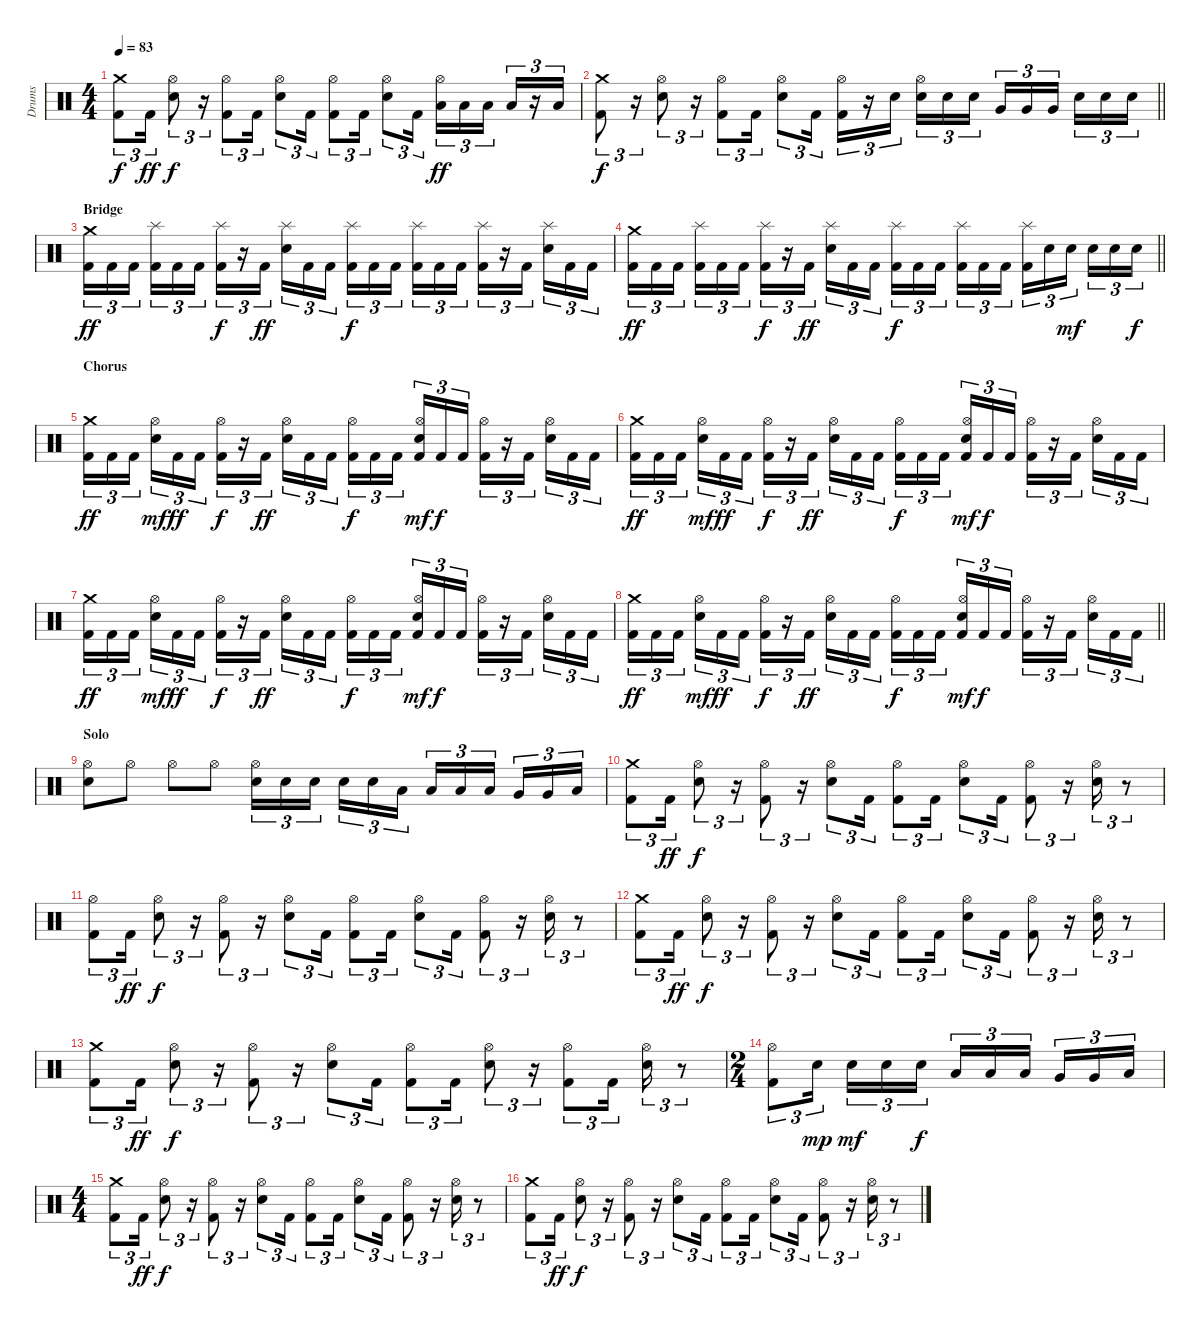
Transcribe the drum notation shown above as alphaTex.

\track ("Drums " "Drums ") {instrument percussion}
\staff {score}
\articulation defaults
\ts (4 4)
\tempo 83
\clef neutral
\ks c
("Crash medium (hit)" "Kick (hit) 2").8{tu (3 2) dy f} "Kick (hit) 2".16{tu (3 2) dy ff} ("Hi-Hat (open)" "Snare (hit) 2").8{tu (3 2) dy f} r.16{tu (3 2)} ("Hi-Hat (open)" "Kick (hit) 2").8{tu (3 2)} "Kick (hit) 2".16{tu (3 2)} ("Hi-Hat (open)" "Snare (hit) 2").8{tu (3 2)} "Kick (hit) 2".16{tu (3 2)} ("Hi-Hat (open)" "Kick (hit) 2").8{tu (3 2)} "Kick (hit) 2".16{tu (3 2)} ("Hi-Hat (open)" "Snare (hit) 2").8{tu (3 2)} "Kick (hit) 2".16{tu (3 2)} ("Hi-Hat (open)" "Low Tom (hit)").16{tu (3 2) dy ff} "Low Tom (hit)".16{tu (3 2)} "Low Tom (hit)".16{tu (3 2) beam splitsecondary} "Low Floor Tom (hit)".16{tu (3 2)} r.16{tu (3 2)} "Low Floor Tom (hit)".16{tu (3 2)} |
\barLineRight lightlight
("Crash medium (hit)" "Kick (hit) 2").8{tu (3 2) dy f} r.16{tu (3 2)} ("Hi-Hat (open)" "Snare (hit) 2").8{tu (3 2)} r.16{tu (3 2)} ("Hi-Hat (open)" "Kick (hit) 2").8{tu (3 2)} "Kick (hit) 2".16{tu (3 2)} ("Hi-Hat (open)" "Snare (hit) 2").8{tu (3 2)} "Kick (hit) 2".16{tu (3 2)} ("Hi-Hat (open)" "Kick (hit) 2").16{tu (3 2)} r.16{tu (3 2)} "Snare (hit) 2".16{tu (3 2) beam splitsecondary} ("Hi-Hat (open)" "Snare (hit) 2").16{tu (3 2)} "Snare (hit) 2".16{tu (3 2)} "Snare (hit) 2".16{tu (3 2)} "Very Low Tom (hit)".16{tu (3 2)} "Very Low Tom (hit)".16{tu (3 2)} "Very Low Tom (hit)".16{tu (3 2) beam splitsecondary} "Snare (hit) 2".16{tu (3 2)} "Snare (hit) 2".16{tu (3 2)} "Snare (hit) 2".16{tu (3 2)} |
\section ("" "Bridge")
("Crash medium (hit)" "Kick (hit) 2").16{tu (3 2) dy ff} "Kick (hit) 2".16{tu (3 2)} "Kick (hit) 2".16{tu (3 2) beam splitsecondary} ("Splash (hit)" "Kick (hit) 2").16{tu (3 2)} "Kick (hit) 2".16{tu (3 2)} "Kick (hit) 2".16{tu (3 2)} ("Splash (hit)" "Kick (hit) 2").16{tu (3 2) dy f} r.16{tu (3 2)} "Kick (hit) 2".16{tu (3 2) dy ff beam splitsecondary} ("Splash (hit)" "Snare (hit) 2").16{tu (3 2)} "Kick (hit) 2".16{tu (3 2)} "Kick (hit) 2".16{tu (3 2)} ("Splash (hit)" "Kick (hit) 2").16{tu (3 2) dy f} "Kick (hit) 2".16{tu (3 2)} "Kick (hit) 2".16{tu (3 2) beam splitsecondary} ("Splash (hit)" "Kick (hit) 2").16{tu (3 2)} "Kick (hit) 2".16{tu (3 2)} "Kick (hit) 2".16{tu (3 2)} ("Splash (hit)" "Kick (hit) 2").16{tu (3 2)} r.16{tu (3 2)} "Kick (hit) 2".16{tu (3 2) beam splitsecondary} ("Splash (hit)" "Snare (hit) 2").16{tu (3 2)} "Kick (hit) 2".16{tu (3 2)} "Kick (hit) 2".16{tu (3 2)} |
\barLineRight lightlight
("Crash medium (hit)" "Kick (hit) 2").16{tu (3 2) dy ff} "Kick (hit) 2".16{tu (3 2)} "Kick (hit) 2".16{tu (3 2) beam splitsecondary} ("Splash (hit)" "Kick (hit) 2").16{tu (3 2)} "Kick (hit) 2".16{tu (3 2)} "Kick (hit) 2".16{tu (3 2)} ("Splash (hit)" "Kick (hit) 2").16{tu (3 2) dy f} r.16{tu (3 2)} "Kick (hit) 2".16{tu (3 2) dy ff beam splitsecondary} ("Splash (hit)" "Snare (hit) 2").16{tu (3 2)} "Kick (hit) 2".16{tu (3 2)} "Kick (hit) 2".16{tu (3 2)} ("Splash (hit)" "Kick (hit) 2").16{tu (3 2) dy f} "Kick (hit) 2".16{tu (3 2)} "Kick (hit) 2".16{tu (3 2) beam splitsecondary} ("Splash (hit)" "Kick (hit) 2").16{tu (3 2)} "Kick (hit) 2".16{tu (3 2)} "Kick (hit) 2".16{tu (3 2)} ("Splash (hit)" "Kick (hit) 2").16{tu (3 2)} "Snare (hit) 2".16{tu (3 2)} "Snare (hit) 2".16{tu (3 2) dy mf beam splitsecondary} "Snare (hit) 2".16{tu (3 2)} "Snare (hit) 2".16{tu (3 2)} "Snare (hit) 2".16{tu (3 2) dy f} |
\section ("" "Chorus")
("Crash medium (hit)" "Kick (hit) 2").16{tu (3 2) dy ff} "Kick (hit) 2".16{tu (3 2)} "Kick (hit) 2".16{tu (3 2) beam splitsecondary} ("Hi-Hat (open)" "Snare (hit) 2").16{tu (3 2) dy mf} "Kick (hit) 2".16{tu (3 2) dy ff} "Kick (hit) 2".16{tu (3 2)} ("Hi-Hat (open)" "Kick (hit) 2").16{tu (3 2) dy f} r.16{tu (3 2)} "Kick (hit) 2".16{tu (3 2) dy ff beam splitsecondary} ("Hi-Hat (open)" "Snare (hit) 2").16{tu (3 2)} "Kick (hit) 2".16{tu (3 2)} "Kick (hit) 2".16{tu (3 2)} ("Hi-Hat (open)" "Kick (hit) 2").16{tu (3 2) dy f} "Kick (hit) 2".16{tu (3 2)} "Kick (hit) 2".16{tu (3 2) beam splitsecondary} ("Hi-Hat (open)" "Snare (hit) 2" "Kick (hit) 2").16{tu (3 2) dy mf} "Kick (hit) 2".16{tu (3 2) dy f} "Kick (hit) 2".16{tu (3 2)} ("Hi-Hat (open)" "Kick (hit) 2").16{tu (3 2)} r.16{tu (3 2)} "Kick (hit) 2".16{tu (3 2) beam splitsecondary} ("Hi-Hat (open)" "Snare (hit) 2").16{tu (3 2)} "Kick (hit) 2".16{tu (3 2)} "Kick (hit) 2".16{tu (3 2)} |
("Crash medium (hit)" "Kick (hit) 2").16{tu (3 2) dy ff} "Kick (hit) 2".16{tu (3 2)} "Kick (hit) 2".16{tu (3 2) beam splitsecondary} ("Hi-Hat (open)" "Snare (hit) 2").16{tu (3 2) dy mf} "Kick (hit) 2".16{tu (3 2) dy ff} "Kick (hit) 2".16{tu (3 2)} ("Hi-Hat (open)" "Kick (hit) 2").16{tu (3 2) dy f} r.16{tu (3 2)} "Kick (hit) 2".16{tu (3 2) dy ff beam splitsecondary} ("Hi-Hat (open)" "Snare (hit) 2").16{tu (3 2)} "Kick (hit) 2".16{tu (3 2)} "Kick (hit) 2".16{tu (3 2)} ("Hi-Hat (open)" "Kick (hit) 2").16{tu (3 2) dy f} "Kick (hit) 2".16{tu (3 2)} "Kick (hit) 2".16{tu (3 2) beam splitsecondary} ("Hi-Hat (open)" "Snare (hit) 2" "Kick (hit) 2").16{tu (3 2) dy mf} "Kick (hit) 2".16{tu (3 2) dy f} "Kick (hit) 2".16{tu (3 2)} ("Hi-Hat (open)" "Kick (hit) 2").16{tu (3 2)} r.16{tu (3 2)} "Kick (hit) 2".16{tu (3 2) beam splitsecondary} ("Hi-Hat (open)" "Snare (hit) 2").16{tu (3 2)} "Kick (hit) 2".16{tu (3 2)} "Kick (hit) 2".16{tu (3 2)} |
("Crash medium (hit)" "Kick (hit) 2").16{tu (3 2) dy ff} "Kick (hit) 2".16{tu (3 2)} "Kick (hit) 2".16{tu (3 2) beam splitsecondary} ("Hi-Hat (open)" "Snare (hit) 2").16{tu (3 2) dy mf} "Kick (hit) 2".16{tu (3 2) dy ff} "Kick (hit) 2".16{tu (3 2)} ("Hi-Hat (open)" "Kick (hit) 2").16{tu (3 2) dy f} r.16{tu (3 2)} "Kick (hit) 2".16{tu (3 2) dy ff beam splitsecondary} ("Hi-Hat (open)" "Snare (hit) 2").16{tu (3 2)} "Kick (hit) 2".16{tu (3 2)} "Kick (hit) 2".16{tu (3 2)} ("Hi-Hat (open)" "Kick (hit) 2").16{tu (3 2) dy f} "Kick (hit) 2".16{tu (3 2)} "Kick (hit) 2".16{tu (3 2) beam splitsecondary} ("Hi-Hat (open)" "Snare (hit) 2" "Kick (hit) 2").16{tu (3 2) dy mf} "Kick (hit) 2".16{tu (3 2) dy f} "Kick (hit) 2".16{tu (3 2)} ("Hi-Hat (open)" "Kick (hit) 2").16{tu (3 2)} r.16{tu (3 2)} "Kick (hit) 2".16{tu (3 2) beam splitsecondary} ("Hi-Hat (open)" "Snare (hit) 2").16{tu (3 2)} "Kick (hit) 2".16{tu (3 2)} "Kick (hit) 2".16{tu (3 2)} |
\barLineRight lightlight
("Crash medium (hit)" "Kick (hit) 2").16{tu (3 2) dy ff} "Kick (hit) 2".16{tu (3 2)} "Kick (hit) 2".16{tu (3 2) beam splitsecondary} ("Hi-Hat (open)" "Snare (hit) 2").16{tu (3 2) dy mf} "Kick (hit) 2".16{tu (3 2) dy ff} "Kick (hit) 2".16{tu (3 2)} ("Hi-Hat (open)" "Kick (hit) 2").16{tu (3 2) dy f} r.16{tu (3 2)} "Kick (hit) 2".16{tu (3 2) dy ff beam splitsecondary} ("Hi-Hat (open)" "Snare (hit) 2").16{tu (3 2)} "Kick (hit) 2".16{tu (3 2)} "Kick (hit) 2".16{tu (3 2)} ("Hi-Hat (open)" "Kick (hit) 2").16{tu (3 2) dy f} "Kick (hit) 2".16{tu (3 2)} "Kick (hit) 2".16{tu (3 2) beam splitsecondary} ("Hi-Hat (open)" "Snare (hit) 2" "Kick (hit) 2").16{tu (3 2) dy mf} "Kick (hit) 2".16{tu (3 2) dy f} "Kick (hit) 2".16{tu (3 2)} ("Hi-Hat (open)" "Kick (hit) 2").16{tu (3 2)} r.16{tu (3 2)} "Kick (hit) 2".16{tu (3 2) beam splitsecondary} ("Hi-Hat (open)" "Snare (hit) 2").16{tu (3 2)} "Kick (hit) 2".16{tu (3 2)} "Kick (hit) 2".16{tu (3 2)} |
\section ("" "Solo")
("Hi-Hat (open)" "Snare (hit) 2").8 "Hi-Hat (open)".8 "Hi-Hat (open)".8 "Hi-Hat (open)".8 ("Hi-Hat (open)" "Snare (hit) 2").16{tu (3 2)} "Snare (hit) 2".16{tu (3 2)} "Snare (hit) 2".16{tu (3 2) beam splitsecondary} "Snare (hit) 2".16{tu (3 2)} "Snare (hit) 2".16{tu (3 2)} "Low Tom (hit)".16{tu (3 2)} "Low Tom (hit)".16{tu (3 2)} "Low Tom (hit)".16{tu (3 2)} "Low Tom (hit)".16{tu (3 2) beam splitsecondary} "Very Low Tom (hit)".16{tu (3 2)} "Very Low Tom (hit)".16{tu (3 2)} "Low Floor Tom (hit)".16{tu (3 2)} |
("Crash medium (hit)" "Kick (hit) 2").8{tu (3 2)} "Kick (hit) 2".16{tu (3 2) dy ff} ("Hi-Hat (open)" "Snare (hit) 2").8{tu (3 2) dy f} r.16{tu (3 2)} ("Hi-Hat (open)" "Kick (hit) 2").8{tu (3 2)} r.16{tu (3 2)} ("Hi-Hat (open)" "Snare (hit) 2").8{tu (3 2)} "Kick (hit) 2".16{tu (3 2)} ("Hi-Hat (open)" "Kick (hit) 2").8{tu (3 2)} "Kick (hit) 2".16{tu (3 2)} ("Hi-Hat (open)" "Snare (hit) 2").8{tu (3 2)} "Kick (hit) 2".16{tu (3 2)} ("Hi-Hat (open)" "Kick (hit) 2").8{tu (3 2)} r.16{tu (3 2)} ("Hi-Hat (open)" "Snare (hit) 2").16{tu (3 2)} r.8{tu (3 2)} |
("Hi-Hat (open)" "Kick (hit) 2").8{tu (3 2)} "Kick (hit) 2".16{tu (3 2) dy ff} ("Hi-Hat (open)" "Snare (hit) 2").8{tu (3 2) dy f} r.16{tu (3 2)} ("Hi-Hat (open)" "Kick (hit) 2").8{tu (3 2)} r.16{tu (3 2)} ("Hi-Hat (open)" "Snare (hit) 2").8{tu (3 2)} "Kick (hit) 2".16{tu (3 2)} ("Hi-Hat (open)" "Kick (hit) 2").8{tu (3 2)} "Kick (hit) 2".16{tu (3 2)} ("Hi-Hat (open)" "Snare (hit) 2").8{tu (3 2)} "Kick (hit) 2".16{tu (3 2)} ("Hi-Hat (open)" "Kick (hit) 2").8{tu (3 2)} r.16{tu (3 2)} ("Hi-Hat (open)" "Snare (hit) 2").16{tu (3 2)} r.8{tu (3 2)} |
("Crash medium (hit)" "Kick (hit) 2").8{tu (3 2)} "Kick (hit) 2".16{tu (3 2) dy ff} ("Hi-Hat (open)" "Snare (hit) 2").8{tu (3 2) dy f} r.16{tu (3 2)} ("Hi-Hat (open)" "Kick (hit) 2").8{tu (3 2)} r.16{tu (3 2)} ("Hi-Hat (open)" "Snare (hit) 2").8{tu (3 2)} "Kick (hit) 2".16{tu (3 2)} ("Hi-Hat (open)" "Kick (hit) 2").8{tu (3 2)} "Kick (hit) 2".16{tu (3 2)} ("Hi-Hat (open)" "Snare (hit) 2").8{tu (3 2)} "Kick (hit) 2".16{tu (3 2)} ("Hi-Hat (open)" "Kick (hit) 2").8{tu (3 2)} r.16{tu (3 2)} ("Hi-Hat (open)" "Snare (hit) 2").16{tu (3 2)} r.8{tu (3 2)} |
("Crash medium (hit)" "Kick (hit) 2").8{tu (3 2)} "Kick (hit) 2".16{tu (3 2) dy ff} ("Hi-Hat (open)" "Snare (hit) 2").8{tu (3 2) dy f} r.16{tu (3 2)} ("Hi-Hat (open)" "Kick (hit) 2").8{tu (3 2)} r.16{tu (3 2)} ("Hi-Hat (open)" "Snare (hit) 2").8{tu (3 2)} "Kick (hit) 2".16{tu (3 2)} ("Hi-Hat (open)" "Kick (hit) 2").8{tu (3 2)} "Kick (hit) 2".16{tu (3 2)} ("Hi-Hat (open)" "Snare (hit) 2").8{tu (3 2)} r.16{tu (3 2)} ("Hi-Hat (open)" "Kick (hit) 2").8{tu (3 2)} "Kick (hit) 2".16{tu (3 2)} ("Hi-Hat (open)" "Snare (hit) 2").16{tu (3 2)} r.8{tu (3 2)} |
\ts (2 4)
("Hi-Hat (open)" "Kick (hit) 2").8{tu (3 2)} "Snare (hit) 2".16{tu (3 2) dy mp beam splitsecondary} "Snare (hit) 2".16{tu (3 2) dy mf} "Snare (hit) 2".16{tu (3 2)} "Snare (hit) 2".16{tu (3 2) dy f} "Low Tom (hit)".16{tu (3 2)} "Low Tom (hit)".16{tu (3 2)} "Low Tom (hit)".16{tu (3 2) beam splitsecondary} "Very Low Tom (hit)".16{tu (3 2)} "Very Low Tom (hit)".16{tu (3 2)} "Low Floor Tom (hit)".16{tu (3 2)} |
\ts (4 4)
("Crash medium (hit)" "Kick (hit) 2").8{tu (3 2)} "Kick (hit) 2".16{tu (3 2) dy ff} ("Hi-Hat (open)" "Snare (hit) 2").8{tu (3 2) dy f} r.16{tu (3 2)} ("Hi-Hat (open)" "Kick (hit) 2").8{tu (3 2)} r.16{tu (3 2)} ("Hi-Hat (open)" "Snare (hit) 2").8{tu (3 2)} "Kick (hit) 2".16{tu (3 2)} ("Hi-Hat (open)" "Kick (hit) 2").8{tu (3 2)} "Kick (hit) 2".16{tu (3 2)} ("Hi-Hat (open)" "Snare (hit) 2").8{tu (3 2)} "Kick (hit) 2".16{tu (3 2)} ("Hi-Hat (open)" "Kick (hit) 2").8{tu (3 2)} r.16{tu (3 2)} ("Hi-Hat (open)" "Snare (hit) 2").16{tu (3 2)} r.8{tu (3 2)} |
("Crash medium (hit)" "Kick (hit) 2").8{tu (3 2)} "Kick (hit) 2".16{tu (3 2) dy ff} ("Hi-Hat (open)" "Snare (hit) 2").8{tu (3 2) dy f} r.16{tu (3 2)} ("Hi-Hat (open)" "Kick (hit) 2").8{tu (3 2)} r.16{tu (3 2)} ("Hi-Hat (open)" "Snare (hit) 2").8{tu (3 2)} "Kick (hit) 2".16{tu (3 2)} ("Hi-Hat (open)" "Kick (hit) 2").8{tu (3 2)} "Kick (hit) 2".16{tu (3 2)} ("Hi-Hat (open)" "Snare (hit) 2").8{tu (3 2)} "Kick (hit) 2".16{tu (3 2)} ("Hi-Hat (open)" "Kick (hit) 2").8{tu (3 2)} r.16{tu (3 2)} ("Hi-Hat (open)" "Snare (hit) 2").16{tu (3 2)} r.8{tu (3 2)}
